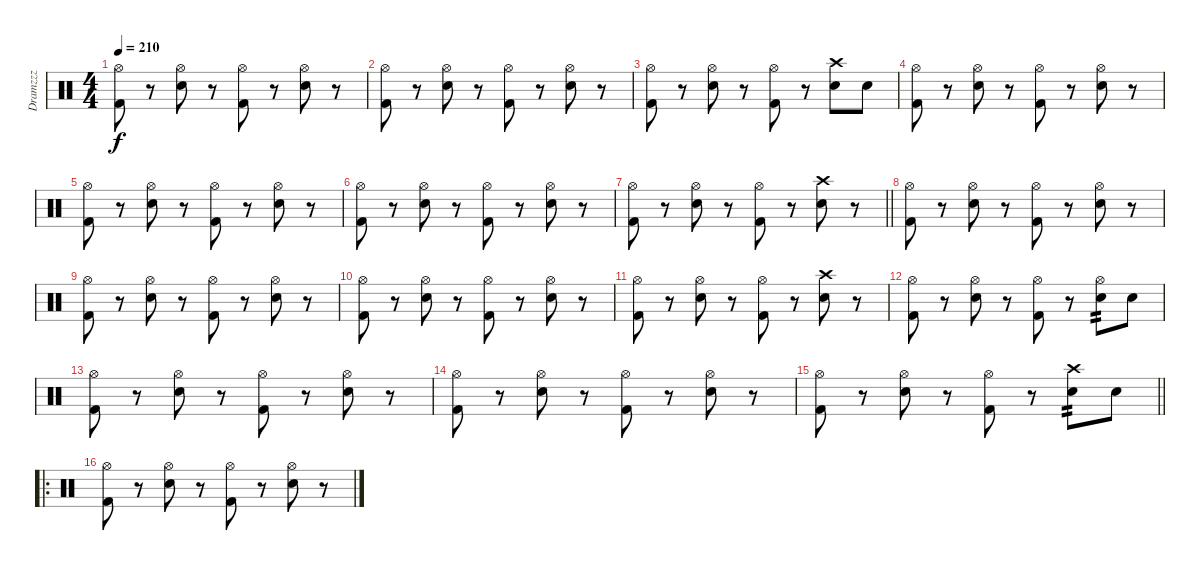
\track ("Dramzzz" "Dramzzz") {instrument percussion}
\staff {score}
\articulation defaults
\ts (4 4)
\tempo 210
\clef neutral
\ks c
("Hi-Hat (open)" "Kick (hit) 2").8{dy f} r.8 ("Hi-Hat (open)" "Electric Snare (hit)").8 r.8 ("Hi-Hat (open)" "Kick (hit) 2").8 r.8 ("Hi-Hat (open)" "Electric Snare (hit)").8 r.8 |
("Hi-Hat (open)" "Kick (hit) 2").8 r.8 ("Hi-Hat (open)" "Electric Snare (hit)").8 r.8 ("Hi-Hat (open)" "Kick (hit) 2").8 r.8 ("Hi-Hat (open)" "Electric Snare (hit)").8 r.8 |
("Hi-Hat (open)" "Kick (hit) 2").8 r.8 ("Hi-Hat (open)" "Electric Snare (hit)").8 r.8 ("Hi-Hat (open)" "Kick (hit) 2").8 r.8 ("Crash high (hit)" "Electric Snare (hit)").8 "Electric Snare (hit)".8 |
("Hi-Hat (open)" "Kick (hit) 2").8 r.8 ("Hi-Hat (open)" "Electric Snare (hit)").8 r.8 ("Hi-Hat (open)" "Kick (hit) 2").8 r.8 ("Hi-Hat (open)" "Electric Snare (hit)").8 r.8 |
("Hi-Hat (open)" "Kick (hit) 2").8 r.8 ("Hi-Hat (open)" "Electric Snare (hit)").8 r.8 ("Hi-Hat (open)" "Kick (hit) 2").8 r.8 ("Hi-Hat (open)" "Electric Snare (hit)").8 r.8 |
("Hi-Hat (open)" "Kick (hit) 2").8 r.8 ("Hi-Hat (open)" "Electric Snare (hit)").8 r.8 ("Hi-Hat (open)" "Kick (hit) 2").8 r.8 ("Hi-Hat (open)" "Electric Snare (hit)").8 r.8 |
\barLineRight lightlight
("Hi-Hat (open)" "Kick (hit) 2").8 r.8 ("Hi-Hat (open)" "Electric Snare (hit)").8 r.8 ("Hi-Hat (open)" "Kick (hit) 2").8 r.8 ("Crash high (hit)" "Electric Snare (hit)").8 r.8 |
("Hi-Hat (open)" "Kick (hit) 2").8 r.8 ("Hi-Hat (open)" "Electric Snare (hit)").8 r.8 ("Hi-Hat (open)" "Kick (hit) 2").8 r.8 ("Hi-Hat (open)" "Electric Snare (hit)").8 r.8 |
("Hi-Hat (open)" "Kick (hit) 2").8 r.8 ("Hi-Hat (open)" "Electric Snare (hit)").8 r.8 ("Hi-Hat (open)" "Kick (hit) 2").8 r.8 ("Hi-Hat (open)" "Electric Snare (hit)").8 r.8 |
("Hi-Hat (open)" "Kick (hit) 2").8 r.8 ("Hi-Hat (open)" "Electric Snare (hit)").8 r.8 ("Hi-Hat (open)" "Kick (hit) 2").8 r.8 ("Hi-Hat (open)" "Electric Snare (hit)").8 r.8 |
("Hi-Hat (open)" "Kick (hit) 2").8 r.8 ("Hi-Hat (open)" "Electric Snare (hit)").8 r.8 ("Hi-Hat (open)" "Kick (hit) 2").8 r.8 ("Crash high (hit)" "Electric Snare (hit)").8 r.8 |
("Hi-Hat (open)" "Kick (hit) 2").8 r.8 ("Hi-Hat (open)" "Electric Snare (hit)").8 r.8 ("Hi-Hat (open)" "Kick (hit) 2").8 r.8 ("Hi-Hat (open)" "Electric Snare (hit)").8{tp 2} "Electric Snare (hit)".8 |
("Hi-Hat (open)" "Kick (hit) 2").8 r.8 ("Hi-Hat (open)" "Electric Snare (hit)").8 r.8 ("Hi-Hat (open)" "Kick (hit) 2").8 r.8 ("Hi-Hat (open)" "Electric Snare (hit)").8 r.8 |
("Hi-Hat (open)" "Kick (hit) 2").8 r.8 ("Hi-Hat (open)" "Electric Snare (hit)").8 r.8 ("Hi-Hat (open)" "Kick (hit) 2").8 r.8 ("Hi-Hat (open)" "Electric Snare (hit)").8 r.8 |
\barLineRight lightlight
("Hi-Hat (open)" "Kick (hit) 2").8 r.8 ("Hi-Hat (open)" "Electric Snare (hit)").8 r.8 ("Hi-Hat (open)" "Kick (hit) 2").8 r.8 ("Crash high (hit)" "Electric Snare (hit)").8{tp 2} "Electric Snare (hit)".8 |
\ro
("Hi-Hat (open)" "Kick (hit) 2").8 r.8 ("Hi-Hat (open)" "Electric Snare (hit)").8 r.8 ("Hi-Hat (open)" "Kick (hit) 2").8 r.8 ("Hi-Hat (open)" "Electric Snare (hit)").8 r.8
